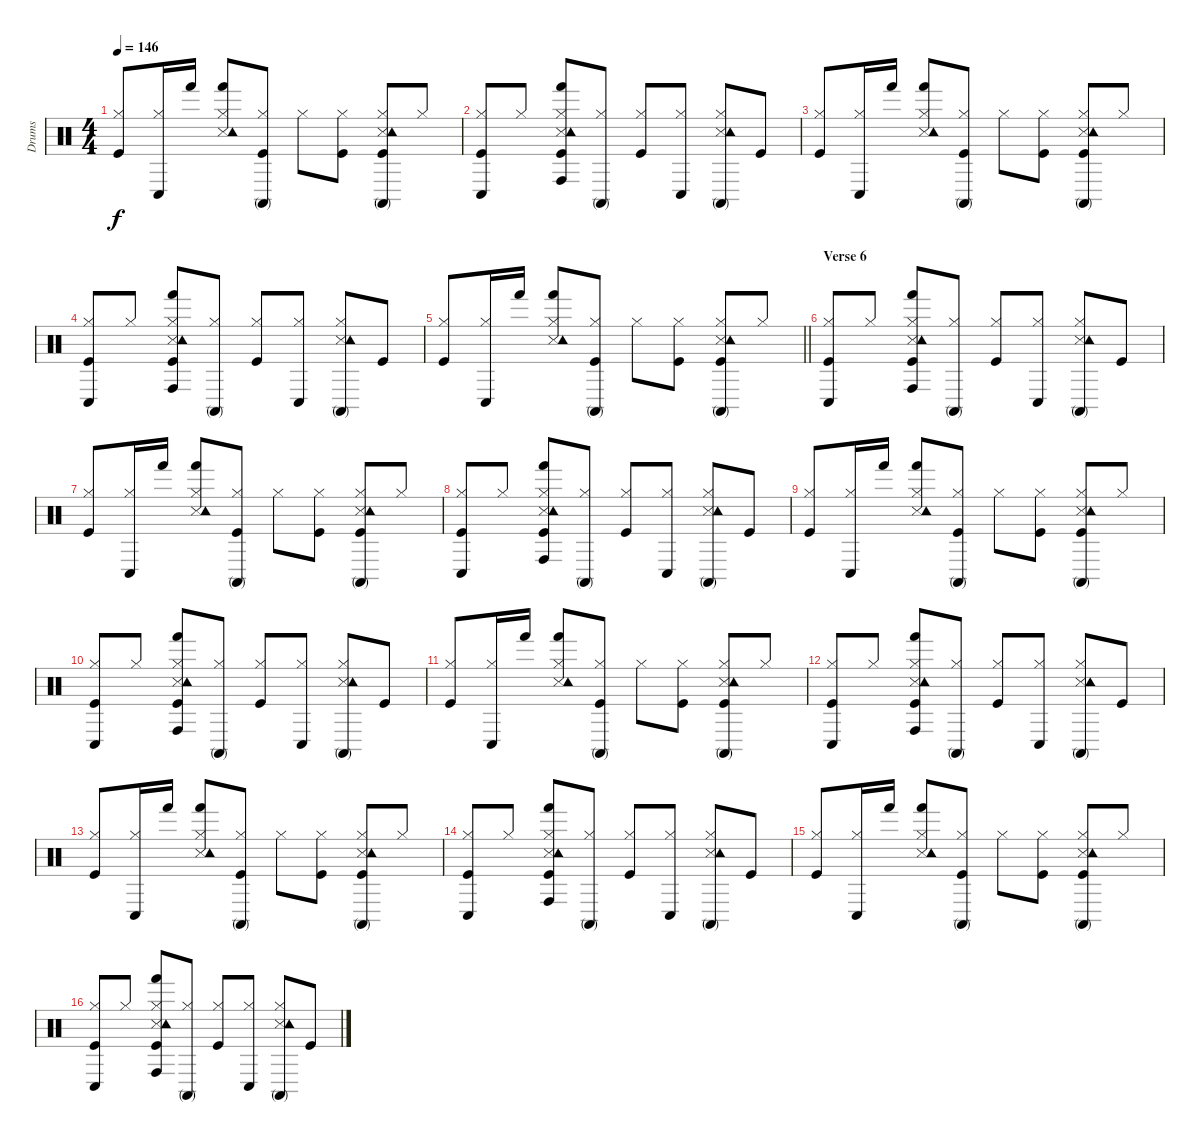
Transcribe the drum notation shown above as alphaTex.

\track ("Drums" "Drums") {instrument percussion}
\staff {score}
\articulation defaults
\ts (4 4)
\tempo 146
\clef neutral
\ks c
("Kick (hit)" "Hi-Hat (closed)").8{dy f} ("Hi-Hat (closed)" "Conga low (hit)").16 "Hand (hit)".16 ("Snare (side stick) 3" "Hi-Hat (closed)" "Tambourine (hit)" "Hand (hit)").8 ("Kick (hit)" "Hi-Hat (closed)" "Conga high (mute)").8 "Hi-Hat (closed)".8 ("Kick (hit)" "Hi-Hat (closed)").8 ("Kick (hit)" "Snare (side stick) 3" "Hi-Hat (closed)" "Tambourine (hit)" "Conga high (mute)").8 "Hi-Hat (closed)".8 |
("Kick (hit)" "Hi-Hat (closed)" "Conga low (hit)").8 "Hi-Hat (closed)".8 ("Kick (hit)" "Snare (side stick) 3" "Hi-Hat (closed)" "Tambourine (hit)" "Hand (hit)" "Conga high (hit)").8 ("Hi-Hat (closed)" "Conga high (mute)").8 ("Kick (hit)" "Hi-Hat (closed)").8 ("Hi-Hat (closed)" "Conga low (hit)").8 ("Snare (side stick) 3" "Hi-Hat (closed)" "Tambourine (hit)" "Conga high (mute)").8 "Kick (hit)".8 |
("Kick (hit)" "Hi-Hat (closed)").8 ("Hi-Hat (closed)" "Conga low (hit)").16 "Hand (hit)".16 ("Snare (side stick) 3" "Hi-Hat (closed)" "Tambourine (hit)" "Hand (hit)").8 ("Kick (hit)" "Hi-Hat (closed)" "Conga high (mute)").8 "Hi-Hat (closed)".8 ("Kick (hit)" "Hi-Hat (closed)").8 ("Kick (hit)" "Snare (side stick) 3" "Hi-Hat (closed)" "Tambourine (hit)" "Conga high (mute)").8 "Hi-Hat (closed)".8 |
("Kick (hit)" "Hi-Hat (closed)" "Conga low (hit)").8 "Hi-Hat (closed)".8 ("Kick (hit)" "Snare (side stick) 3" "Hi-Hat (closed)" "Tambourine (hit)" "Hand (hit)" "Conga high (hit)").8 ("Hi-Hat (closed)" "Conga high (mute)").8 ("Kick (hit)" "Hi-Hat (closed)").8 ("Hi-Hat (closed)" "Conga low (hit)").8 ("Snare (side stick) 3" "Hi-Hat (closed)" "Tambourine (hit)" "Conga high (mute)").8 "Kick (hit)".8 |
\barLineRight lightlight
("Kick (hit)" "Hi-Hat (closed)").8 ("Hi-Hat (closed)" "Conga low (hit)").16 "Hand (hit)".16 ("Snare (side stick) 3" "Hi-Hat (closed)" "Tambourine (hit)" "Hand (hit)").8 ("Kick (hit)" "Hi-Hat (closed)" "Conga high (mute)").8 "Hi-Hat (closed)".8 ("Kick (hit)" "Hi-Hat (closed)").8 ("Kick (hit)" "Snare (side stick) 3" "Hi-Hat (closed)" "Tambourine (hit)" "Conga high (mute)").8 "Hi-Hat (closed)".8 |
\section ("" "Verse 6")
("Kick (hit)" "Hi-Hat (closed)" "Conga low (hit)").8 "Hi-Hat (closed)".8 ("Kick (hit)" "Snare (side stick) 3" "Hi-Hat (closed)" "Tambourine (hit)" "Hand (hit)" "Conga high (hit)").8 ("Hi-Hat (closed)" "Conga high (mute)").8 ("Kick (hit)" "Hi-Hat (closed)").8 ("Hi-Hat (closed)" "Conga low (hit)").8 ("Snare (side stick) 3" "Hi-Hat (closed)" "Tambourine (hit)" "Conga high (mute)").8 "Kick (hit)".8 |
("Kick (hit)" "Hi-Hat (closed)").8 ("Hi-Hat (closed)" "Conga low (hit)").16 "Hand (hit)".16 ("Snare (side stick) 3" "Hi-Hat (closed)" "Tambourine (hit)" "Hand (hit)").8 ("Kick (hit)" "Hi-Hat (closed)" "Conga high (mute)").8 "Hi-Hat (closed)".8 ("Kick (hit)" "Hi-Hat (closed)").8 ("Kick (hit)" "Snare (side stick) 3" "Hi-Hat (closed)" "Tambourine (hit)" "Conga high (mute)").8 "Hi-Hat (closed)".8 |
("Kick (hit)" "Hi-Hat (closed)" "Conga low (hit)").8 "Hi-Hat (closed)".8 ("Kick (hit)" "Snare (side stick) 3" "Hi-Hat (closed)" "Tambourine (hit)" "Hand (hit)" "Conga high (hit)").8 ("Hi-Hat (closed)" "Conga high (mute)").8 ("Kick (hit)" "Hi-Hat (closed)").8 ("Hi-Hat (closed)" "Conga low (hit)").8 ("Snare (side stick) 3" "Hi-Hat (closed)" "Tambourine (hit)" "Conga high (mute)").8 "Kick (hit)".8 |
("Kick (hit)" "Hi-Hat (closed)").8 ("Hi-Hat (closed)" "Conga low (hit)").16 "Hand (hit)".16 ("Snare (side stick) 3" "Hi-Hat (closed)" "Tambourine (hit)" "Hand (hit)").8 ("Kick (hit)" "Hi-Hat (closed)" "Conga high (mute)").8 "Hi-Hat (closed)".8 ("Kick (hit)" "Hi-Hat (closed)").8 ("Kick (hit)" "Snare (side stick) 3" "Hi-Hat (closed)" "Tambourine (hit)" "Conga high (mute)").8 "Hi-Hat (closed)".8 |
("Kick (hit)" "Hi-Hat (closed)" "Conga low (hit)").8 "Hi-Hat (closed)".8 ("Kick (hit)" "Snare (side stick) 3" "Hi-Hat (closed)" "Tambourine (hit)" "Hand (hit)" "Conga high (hit)").8 ("Hi-Hat (closed)" "Conga high (mute)").8 ("Kick (hit)" "Hi-Hat (closed)").8 ("Hi-Hat (closed)" "Conga low (hit)").8 ("Snare (side stick) 3" "Hi-Hat (closed)" "Tambourine (hit)" "Conga high (mute)").8 "Kick (hit)".8 |
("Kick (hit)" "Hi-Hat (closed)").8 ("Hi-Hat (closed)" "Conga low (hit)").16 "Hand (hit)".16 ("Snare (side stick) 3" "Hi-Hat (closed)" "Tambourine (hit)" "Hand (hit)").8 ("Kick (hit)" "Hi-Hat (closed)" "Conga high (mute)").8 "Hi-Hat (closed)".8 ("Kick (hit)" "Hi-Hat (closed)").8 ("Kick (hit)" "Snare (side stick) 3" "Hi-Hat (closed)" "Tambourine (hit)" "Conga high (mute)").8 "Hi-Hat (closed)".8 |
("Kick (hit)" "Hi-Hat (closed)" "Conga low (hit)").8 "Hi-Hat (closed)".8 ("Kick (hit)" "Snare (side stick) 3" "Hi-Hat (closed)" "Tambourine (hit)" "Hand (hit)" "Conga high (hit)").8 ("Hi-Hat (closed)" "Conga high (mute)").8 ("Kick (hit)" "Hi-Hat (closed)").8 ("Hi-Hat (closed)" "Conga low (hit)").8 ("Snare (side stick) 3" "Hi-Hat (closed)" "Tambourine (hit)" "Conga high (mute)").8 "Kick (hit)".8 |
("Kick (hit)" "Hi-Hat (closed)").8 ("Hi-Hat (closed)" "Conga low (hit)").16 "Hand (hit)".16 ("Snare (side stick) 3" "Hi-Hat (closed)" "Tambourine (hit)" "Hand (hit)").8 ("Kick (hit)" "Hi-Hat (closed)" "Conga high (mute)").8 "Hi-Hat (closed)".8 ("Kick (hit)" "Hi-Hat (closed)").8 ("Kick (hit)" "Snare (side stick) 3" "Hi-Hat (closed)" "Tambourine (hit)" "Conga high (mute)").8 "Hi-Hat (closed)".8 |
("Kick (hit)" "Hi-Hat (closed)" "Conga low (hit)").8 "Hi-Hat (closed)".8 ("Kick (hit)" "Snare (side stick) 3" "Hi-Hat (closed)" "Tambourine (hit)" "Hand (hit)" "Conga high (hit)").8 ("Hi-Hat (closed)" "Conga high (mute)").8 ("Kick (hit)" "Hi-Hat (closed)").8 ("Hi-Hat (closed)" "Conga low (hit)").8 ("Snare (side stick) 3" "Hi-Hat (closed)" "Tambourine (hit)" "Conga high (mute)").8 "Kick (hit)".8 |
("Kick (hit)" "Hi-Hat (closed)").8 ("Hi-Hat (closed)" "Conga low (hit)").16 "Hand (hit)".16 ("Snare (side stick) 3" "Hi-Hat (closed)" "Tambourine (hit)" "Hand (hit)").8 ("Kick (hit)" "Hi-Hat (closed)" "Conga high (mute)").8 "Hi-Hat (closed)".8 ("Kick (hit)" "Hi-Hat (closed)").8 ("Kick (hit)" "Snare (side stick) 3" "Hi-Hat (closed)" "Tambourine (hit)" "Conga high (mute)").8 "Hi-Hat (closed)".8 |
("Kick (hit)" "Hi-Hat (closed)" "Conga low (hit)").8 "Hi-Hat (closed)".8 ("Kick (hit)" "Snare (side stick) 3" "Hi-Hat (closed)" "Tambourine (hit)" "Hand (hit)" "Conga high (hit)").8 ("Hi-Hat (closed)" "Conga high (mute)").8 ("Kick (hit)" "Hi-Hat (closed)").8 ("Hi-Hat (closed)" "Conga low (hit)").8 ("Snare (side stick) 3" "Hi-Hat (closed)" "Tambourine (hit)" "Conga high (mute)").8 "Kick (hit)".8
